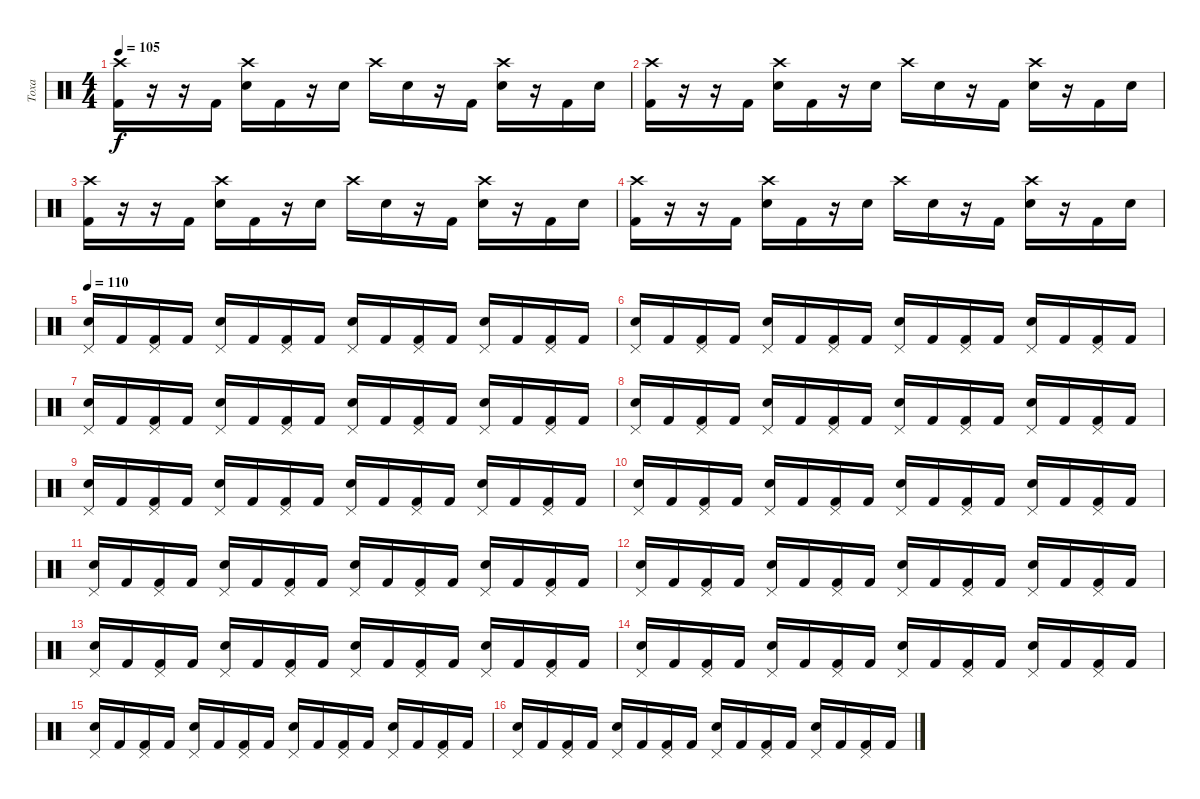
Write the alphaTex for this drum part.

\track ("Toxa" "Toxa") {instrument percussion}
\staff {score}
\articulation defaults
\ts (4 4)
\tempo 105
\clef neutral
\ks c
("Crash high (hit)" "Kick (hit) 2").16{dy f} r.16 r.16 "Kick (hit) 2".16 ("Crash high (hit)" "Electric Snare (hit)").16 "Kick (hit) 2".16 r.16 "Electric Snare (hit)".16 "Crash high (hit)".16 "Electric Snare (hit)".16 r.16 "Kick (hit) 2".16 ("Crash high (hit)" "Electric Snare (hit)").16 r.16 "Kick (hit) 2".16 "Electric Snare (hit)".16 |
("Crash high (hit)" "Kick (hit) 2").16 r.16 r.16 "Kick (hit) 2".16 ("Crash high (hit)" "Electric Snare (hit)").16 "Kick (hit) 2".16 r.16 "Electric Snare (hit)".16 "Crash high (hit)".16 "Electric Snare (hit)".16 r.16 "Kick (hit) 2".16 ("Crash high (hit)" "Electric Snare (hit)").16 r.16 "Kick (hit) 2".16 "Electric Snare (hit)".16 |
("Crash high (hit)" "Kick (hit) 2").16 r.16 r.16 "Kick (hit) 2".16 ("Crash high (hit)" "Electric Snare (hit)").16 "Kick (hit) 2".16 r.16 "Electric Snare (hit)".16 "Crash high (hit)".16 "Electric Snare (hit)".16 r.16 "Kick (hit) 2".16 ("Crash high (hit)" "Electric Snare (hit)").16 r.16 "Kick (hit) 2".16 "Electric Snare (hit)".16 |
("Crash high (hit)" "Kick (hit) 2").16 r.16 r.16 "Kick (hit) 2".16 ("Crash high (hit)" "Electric Snare (hit)").16 "Kick (hit) 2".16 r.16 "Electric Snare (hit)".16 "Crash high (hit)".16 "Electric Snare (hit)".16 r.16 "Kick (hit) 2".16 ("Crash high (hit)" "Electric Snare (hit)").16 r.16 "Kick (hit) 2".16 "Electric Snare (hit)".16 |
\tempo 110
("Pedal Hi-Hat (hit)" "Electric Snare (hit)").16 "Kick (hit) 2".16 ("Pedal Hi-Hat (hit)" "Kick (hit) 2").16 "Kick (hit) 2".16 ("Pedal Hi-Hat (hit)" "Electric Snare (hit)").16 "Kick (hit) 2".16 ("Pedal Hi-Hat (hit)" "Kick (hit) 2").16 "Kick (hit) 2".16 ("Pedal Hi-Hat (hit)" "Electric Snare (hit)").16 "Kick (hit) 2".16 ("Pedal Hi-Hat (hit)" "Kick (hit) 2").16 "Kick (hit) 2".16 ("Pedal Hi-Hat (hit)" "Electric Snare (hit)").16 "Kick (hit) 2".16 ("Pedal Hi-Hat (hit)" "Kick (hit) 2").16 "Kick (hit) 2".16 |
("Pedal Hi-Hat (hit)" "Electric Snare (hit)").16 "Kick (hit) 2".16 ("Pedal Hi-Hat (hit)" "Kick (hit) 2").16 "Kick (hit) 2".16 ("Pedal Hi-Hat (hit)" "Electric Snare (hit)").16 "Kick (hit) 2".16 ("Pedal Hi-Hat (hit)" "Kick (hit) 2").16 "Kick (hit) 2".16 ("Pedal Hi-Hat (hit)" "Electric Snare (hit)").16 "Kick (hit) 2".16 ("Pedal Hi-Hat (hit)" "Kick (hit) 2").16 "Kick (hit) 2".16 ("Pedal Hi-Hat (hit)" "Electric Snare (hit)").16 "Kick (hit) 2".16 ("Pedal Hi-Hat (hit)" "Kick (hit) 2").16 "Kick (hit) 2".16 |
("Pedal Hi-Hat (hit)" "Electric Snare (hit)").16 "Kick (hit) 2".16 ("Pedal Hi-Hat (hit)" "Kick (hit) 2").16 "Kick (hit) 2".16 ("Pedal Hi-Hat (hit)" "Electric Snare (hit)").16 "Kick (hit) 2".16 ("Pedal Hi-Hat (hit)" "Kick (hit) 2").16 "Kick (hit) 2".16 ("Pedal Hi-Hat (hit)" "Electric Snare (hit)").16 "Kick (hit) 2".16 ("Pedal Hi-Hat (hit)" "Kick (hit) 2").16 "Kick (hit) 2".16 ("Pedal Hi-Hat (hit)" "Electric Snare (hit)").16 "Kick (hit) 2".16 ("Pedal Hi-Hat (hit)" "Kick (hit) 2").16 "Kick (hit) 2".16 |
("Pedal Hi-Hat (hit)" "Electric Snare (hit)").16 "Kick (hit) 2".16 ("Pedal Hi-Hat (hit)" "Kick (hit) 2").16 "Kick (hit) 2".16 ("Pedal Hi-Hat (hit)" "Electric Snare (hit)").16 "Kick (hit) 2".16 ("Pedal Hi-Hat (hit)" "Kick (hit) 2").16 "Kick (hit) 2".16 ("Pedal Hi-Hat (hit)" "Electric Snare (hit)").16 "Kick (hit) 2".16 ("Pedal Hi-Hat (hit)" "Kick (hit) 2").16 "Kick (hit) 2".16 ("Pedal Hi-Hat (hit)" "Electric Snare (hit)").16 "Kick (hit) 2".16 ("Pedal Hi-Hat (hit)" "Kick (hit) 2").16 "Kick (hit) 2".16 |
("Pedal Hi-Hat (hit)" "Electric Snare (hit)").16 "Kick (hit) 2".16 ("Pedal Hi-Hat (hit)" "Kick (hit) 2").16 "Kick (hit) 2".16 ("Pedal Hi-Hat (hit)" "Electric Snare (hit)").16 "Kick (hit) 2".16 ("Pedal Hi-Hat (hit)" "Kick (hit) 2").16 "Kick (hit) 2".16 ("Pedal Hi-Hat (hit)" "Electric Snare (hit)").16 "Kick (hit) 2".16 ("Pedal Hi-Hat (hit)" "Kick (hit) 2").16 "Kick (hit) 2".16 ("Pedal Hi-Hat (hit)" "Electric Snare (hit)").16 "Kick (hit) 2".16 ("Pedal Hi-Hat (hit)" "Kick (hit) 2").16 "Kick (hit) 2".16 |
("Pedal Hi-Hat (hit)" "Electric Snare (hit)").16 "Kick (hit) 2".16 ("Pedal Hi-Hat (hit)" "Kick (hit) 2").16 "Kick (hit) 2".16 ("Pedal Hi-Hat (hit)" "Electric Snare (hit)").16 "Kick (hit) 2".16 ("Pedal Hi-Hat (hit)" "Kick (hit) 2").16 "Kick (hit) 2".16 ("Pedal Hi-Hat (hit)" "Electric Snare (hit)").16 "Kick (hit) 2".16 ("Pedal Hi-Hat (hit)" "Kick (hit) 2").16 "Kick (hit) 2".16 ("Pedal Hi-Hat (hit)" "Electric Snare (hit)").16 "Kick (hit) 2".16 ("Pedal Hi-Hat (hit)" "Kick (hit) 2").16 "Kick (hit) 2".16 |
("Pedal Hi-Hat (hit)" "Electric Snare (hit)").16 "Kick (hit) 2".16 ("Pedal Hi-Hat (hit)" "Kick (hit) 2").16 "Kick (hit) 2".16 ("Pedal Hi-Hat (hit)" "Electric Snare (hit)").16 "Kick (hit) 2".16 ("Pedal Hi-Hat (hit)" "Kick (hit) 2").16 "Kick (hit) 2".16 ("Pedal Hi-Hat (hit)" "Electric Snare (hit)").16 "Kick (hit) 2".16 ("Pedal Hi-Hat (hit)" "Kick (hit) 2").16 "Kick (hit) 2".16 ("Pedal Hi-Hat (hit)" "Electric Snare (hit)").16 "Kick (hit) 2".16 ("Pedal Hi-Hat (hit)" "Kick (hit) 2").16 "Kick (hit) 2".16 |
("Pedal Hi-Hat (hit)" "Electric Snare (hit)").16 "Kick (hit) 2".16 ("Pedal Hi-Hat (hit)" "Kick (hit) 2").16 "Kick (hit) 2".16 ("Pedal Hi-Hat (hit)" "Electric Snare (hit)").16 "Kick (hit) 2".16 ("Pedal Hi-Hat (hit)" "Kick (hit) 2").16 "Kick (hit) 2".16 ("Pedal Hi-Hat (hit)" "Electric Snare (hit)").16 "Kick (hit) 2".16 ("Pedal Hi-Hat (hit)" "Kick (hit) 2").16 "Kick (hit) 2".16 ("Pedal Hi-Hat (hit)" "Electric Snare (hit)").16 "Kick (hit) 2".16 ("Pedal Hi-Hat (hit)" "Kick (hit) 2").16 "Kick (hit) 2".16 |
("Pedal Hi-Hat (hit)" "Electric Snare (hit)").16 "Kick (hit) 2".16 ("Pedal Hi-Hat (hit)" "Kick (hit) 2").16 "Kick (hit) 2".16 ("Pedal Hi-Hat (hit)" "Electric Snare (hit)").16 "Kick (hit) 2".16 ("Pedal Hi-Hat (hit)" "Kick (hit) 2").16 "Kick (hit) 2".16 ("Pedal Hi-Hat (hit)" "Electric Snare (hit)").16 "Kick (hit) 2".16 ("Pedal Hi-Hat (hit)" "Kick (hit) 2").16 "Kick (hit) 2".16 ("Pedal Hi-Hat (hit)" "Electric Snare (hit)").16 "Kick (hit) 2".16 ("Pedal Hi-Hat (hit)" "Kick (hit) 2").16 "Kick (hit) 2".16 |
("Pedal Hi-Hat (hit)" "Electric Snare (hit)").16 "Kick (hit) 2".16 ("Pedal Hi-Hat (hit)" "Kick (hit) 2").16 "Kick (hit) 2".16 ("Pedal Hi-Hat (hit)" "Electric Snare (hit)").16 "Kick (hit) 2".16 ("Pedal Hi-Hat (hit)" "Kick (hit) 2").16 "Kick (hit) 2".16 ("Pedal Hi-Hat (hit)" "Electric Snare (hit)").16 "Kick (hit) 2".16 ("Pedal Hi-Hat (hit)" "Kick (hit) 2").16 "Kick (hit) 2".16 ("Pedal Hi-Hat (hit)" "Electric Snare (hit)").16 "Kick (hit) 2".16 ("Pedal Hi-Hat (hit)" "Kick (hit) 2").16 "Kick (hit) 2".16 |
("Pedal Hi-Hat (hit)" "Electric Snare (hit)").16 "Kick (hit) 2".16 ("Pedal Hi-Hat (hit)" "Kick (hit) 2").16 "Kick (hit) 2".16 ("Pedal Hi-Hat (hit)" "Electric Snare (hit)").16 "Kick (hit) 2".16 ("Pedal Hi-Hat (hit)" "Kick (hit) 2").16 "Kick (hit) 2".16 ("Pedal Hi-Hat (hit)" "Electric Snare (hit)").16 "Kick (hit) 2".16 ("Pedal Hi-Hat (hit)" "Kick (hit) 2").16 "Kick (hit) 2".16 ("Pedal Hi-Hat (hit)" "Electric Snare (hit)").16 "Kick (hit) 2".16 ("Pedal Hi-Hat (hit)" "Kick (hit) 2").16 "Kick (hit) 2".16 |
("Pedal Hi-Hat (hit)" "Electric Snare (hit)").16 "Kick (hit) 2".16 ("Pedal Hi-Hat (hit)" "Kick (hit) 2").16 "Kick (hit) 2".16 ("Pedal Hi-Hat (hit)" "Electric Snare (hit)").16 "Kick (hit) 2".16 ("Pedal Hi-Hat (hit)" "Kick (hit) 2").16 "Kick (hit) 2".16 ("Pedal Hi-Hat (hit)" "Electric Snare (hit)").16 "Kick (hit) 2".16 ("Pedal Hi-Hat (hit)" "Kick (hit) 2").16 "Kick (hit) 2".16 ("Pedal Hi-Hat (hit)" "Electric Snare (hit)").16 "Kick (hit) 2".16 ("Pedal Hi-Hat (hit)" "Kick (hit) 2").16 "Kick (hit) 2".16
